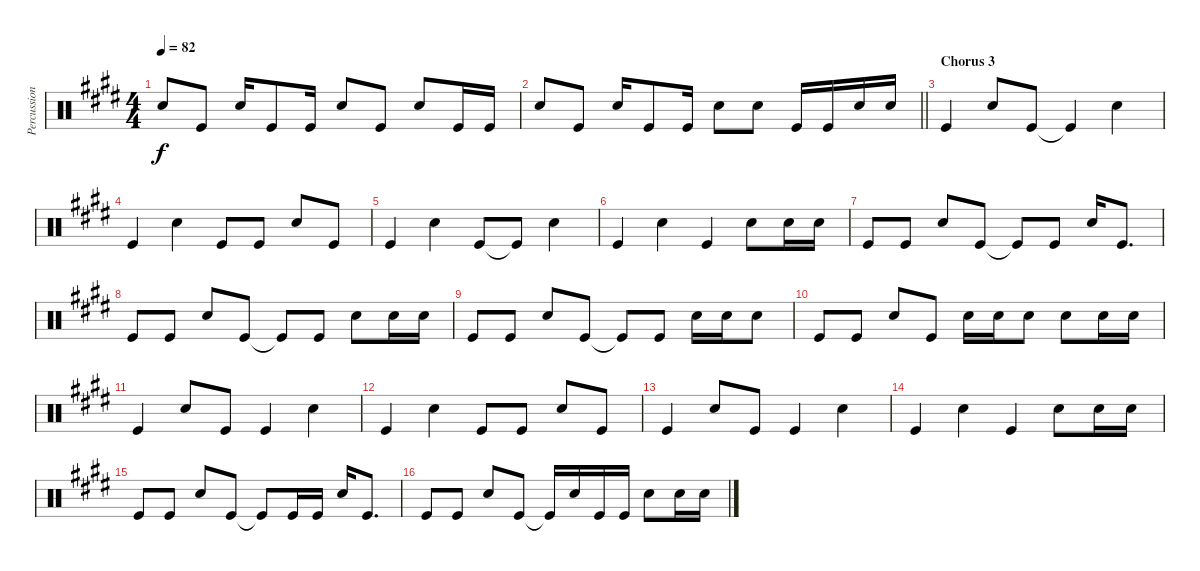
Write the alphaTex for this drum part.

\track ("Percussion" "Percussion") {instrument percussion}
\staff {score}
\articulation defaults
\ts (4 4)
\tempo 82
\clef neutral
\ks e "Snare (hit) 2".8{dy f} "Kick (hit)".8 "Snare (hit) 2".16 "Kick (hit)".8 "Kick (hit)".16 "Snare (hit) 2".8 "Kick (hit)".8 "Snare (hit) 2".8 "Kick (hit)".16 "Kick (hit)".16
|
\barLineRight lightlight "Snare (hit) 2".8 "Kick (hit)".8 "Snare (hit) 2".16 "Kick (hit)".8 "Kick (hit)".16 "Snare (hit) 2".8 "Snare (hit) 2".8 "Kick (hit)".16 "Kick (hit)".16 "Snare (hit) 2".16 "Snare (hit) 2".16
|
\section ("" "Chorus 3")
"Kick (hit)".4 "Snare (hit) 2".8 "Kick (hit)".8 "Kick (hit)"{t}.4 "Snare (hit) 2".4 |
"Kick (hit)".4 "Snare (hit) 2".4 "Kick (hit)".8 "Kick (hit)".8 "Snare (hit) 2".8 "Kick (hit)".8 |
"Kick (hit)".4 "Snare (hit) 2".4 "Kick (hit)".8 "Kick (hit)"{t}.8 "Snare (hit) 2".4 |
"Kick (hit)".4 "Snare (hit) 2".4 "Kick (hit)".4 "Snare (hit) 2".8 "Snare (hit) 2".16 "Snare (hit) 2".16 |
"Kick (hit)".8 "Kick (hit)".8 "Snare (hit) 2".8 "Kick (hit)".8 "Kick (hit)"{t}.8 "Kick (hit)".8 "Snare (hit) 2".16 "Kick (hit)".8{d} |
"Kick (hit)".8 "Kick (hit)".8 "Snare (hit) 2".8 "Kick (hit)".8 "Kick (hit)"{t}.8 "Kick (hit)".8 "Snare (hit) 2".8 "Snare (hit) 2".16 "Snare (hit) 2".16 |
"Kick (hit)".8 "Kick (hit)".8 "Snare (hit) 2".8 "Kick (hit)".8 "Kick (hit)"{t}.8 "Kick (hit)".8 "Snare (hit) 2".16 "Snare (hit) 2".16 "Snare (hit) 2".8 |
"Kick (hit)".8 "Kick (hit)".8 "Snare (hit) 2".8 "Kick (hit)".8 "Snare (hit) 2".16 "Snare (hit) 2".16 "Snare (hit) 2".8 "Snare (hit) 2".8 "Snare (hit) 2".16 "Snare (hit) 2".16 |
"Kick (hit)".4 "Snare (hit) 2".8 "Kick (hit)".8 "Kick (hit)".4 "Snare (hit) 2".4 |
"Kick (hit)".4 "Snare (hit) 2".4 "Kick (hit)".8 "Kick (hit)".8 "Snare (hit) 2".8 "Kick (hit)".8 |
"Kick (hit)".4 "Snare (hit) 2".8 "Kick (hit)".8 "Kick (hit)".4 "Snare (hit) 2".4 |
"Kick (hit)".4 "Snare (hit) 2".4 "Kick (hit)".4 "Snare (hit) 2".8 "Snare (hit) 2".16 "Snare (hit) 2".16 |
"Kick (hit)".8 "Kick (hit)".8 "Snare (hit) 2".8 "Kick (hit)".8 "Kick (hit)"{t}.8 "Kick (hit)".16 "Kick (hit)".16 "Snare (hit) 2".16 "Kick (hit)".8{d} |
"Kick (hit)".8 "Kick (hit)".8 "Snare (hit) 2".8 "Kick (hit)".8 "Kick (hit)"{t}.16 "Snare (hit) 2".16 "Kick (hit)".16 "Kick (hit)".16 "Snare (hit) 2".8 "Snare (hit) 2".16 "Snare (hit) 2".16
